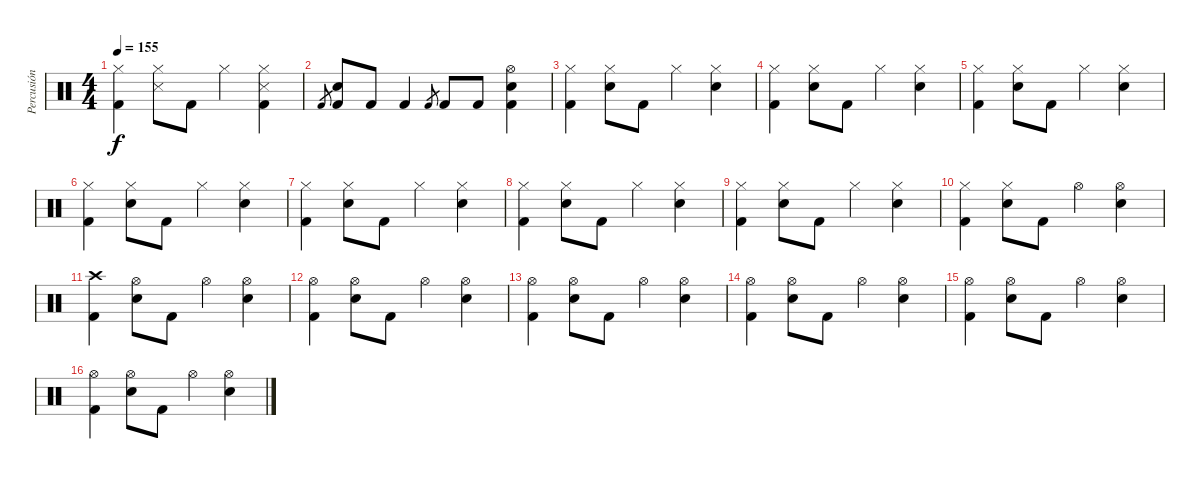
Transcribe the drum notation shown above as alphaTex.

\track ("Percusión" "Percusión") {instrument percussion}
\staff {score}
\articulation defaults
\ts (4 4)
\tempo 155
\clef neutral
\ks c
("Hi-Hat (closed)" "Kick (hit) 2").4{dy f} ("Hi-Hat (closed)" "Snare (side stick) 3").8 "Kick (hit) 2".8 "Hi-Hat (closed)".4 ("Hi-Hat (closed)" "Snare (side stick) 3" "Kick (hit) 2").4 |
"Kick (hit) 2".8{gr} ("Electric Snare (hit)" "Kick (hit) 2").8 "Kick (hit) 2".8 "Kick (hit) 2".4 "Kick (hit) 2".8{gr} "Kick (hit) 2".8 "Kick (hit) 2".8 ("Hi-Hat (open)" "Electric Snare (hit)" "Kick (hit) 2").4 |
("Hi-Hat (closed)" "Kick (hit) 2").4 ("Hi-Hat (closed)" "Electric Snare (hit)").8 "Kick (hit) 2".8 "Hi-Hat (closed)".4 ("Hi-Hat (closed)" "Electric Snare (hit)").4 |
("Hi-Hat (closed)" "Kick (hit) 2").4 ("Hi-Hat (closed)" "Electric Snare (hit)").8 "Kick (hit) 2".8 "Hi-Hat (closed)".4 ("Hi-Hat (closed)" "Electric Snare (hit)").4 |
("Hi-Hat (closed)" "Kick (hit) 2").4 ("Hi-Hat (closed)" "Electric Snare (hit)").8 "Kick (hit) 2".8 "Hi-Hat (closed)".4 ("Hi-Hat (closed)" "Electric Snare (hit)").4 |
("Hi-Hat (closed)" "Kick (hit) 2").4 ("Hi-Hat (closed)" "Electric Snare (hit)").8 "Kick (hit) 2".8 "Hi-Hat (closed)".4 ("Hi-Hat (closed)" "Electric Snare (hit)").4 |
("Hi-Hat (closed)" "Kick (hit) 2").4 ("Hi-Hat (closed)" "Electric Snare (hit)").8 "Kick (hit) 2".8 "Hi-Hat (closed)".4 ("Hi-Hat (closed)" "Electric Snare (hit)").4 |
("Hi-Hat (closed)" "Kick (hit) 2").4 ("Hi-Hat (closed)" "Electric Snare (hit)").8 "Kick (hit) 2".8 "Hi-Hat (closed)".4 ("Hi-Hat (closed)" "Electric Snare (hit)").4 |
("Hi-Hat (closed)" "Kick (hit) 2").4 ("Hi-Hat (closed)" "Electric Snare (hit)").8 "Kick (hit) 2".8 "Hi-Hat (closed)".4 ("Hi-Hat (closed)" "Electric Snare (hit)").4 |
("Hi-Hat (closed)" "Kick (hit) 2").4 ("Hi-Hat (closed)" "Electric Snare (hit)").8 "Kick (hit) 2".8 "Hi-Hat (open)".4 ("Hi-Hat (open)" "Electric Snare (hit)").4 |
("Crash high (hit)" "Kick (hit) 2").4 ("Hi-Hat (open)" "Electric Snare (hit)").8 "Kick (hit) 2".8 "Hi-Hat (open)".4 ("Hi-Hat (open)" "Electric Snare (hit)").4 |
("Hi-Hat (open)" "Kick (hit) 2").4 ("Hi-Hat (open)" "Electric Snare (hit)").8 "Kick (hit) 2".8 "Hi-Hat (open)".4 ("Hi-Hat (open)" "Electric Snare (hit)").4 |
("Hi-Hat (open)" "Kick (hit) 2").4 ("Hi-Hat (open)" "Electric Snare (hit)").8 "Kick (hit) 2".8 "Hi-Hat (open)".4 ("Hi-Hat (open)" "Electric Snare (hit)").4 |
("Hi-Hat (open)" "Kick (hit) 2").4 ("Hi-Hat (open)" "Electric Snare (hit)").8 "Kick (hit) 2".8 "Hi-Hat (open)".4 ("Hi-Hat (open)" "Electric Snare (hit)").4 |
("Hi-Hat (open)" "Kick (hit) 2").4 ("Hi-Hat (open)" "Electric Snare (hit)").8 "Kick (hit) 2".8 "Hi-Hat (open)".4 ("Hi-Hat (open)" "Electric Snare (hit)").4 |
("Hi-Hat (open)" "Kick (hit) 2").4 ("Hi-Hat (open)" "Electric Snare (hit)").8 "Kick (hit) 2".8 "Hi-Hat (open)".4 ("Hi-Hat (open)" "Electric Snare (hit)").4
